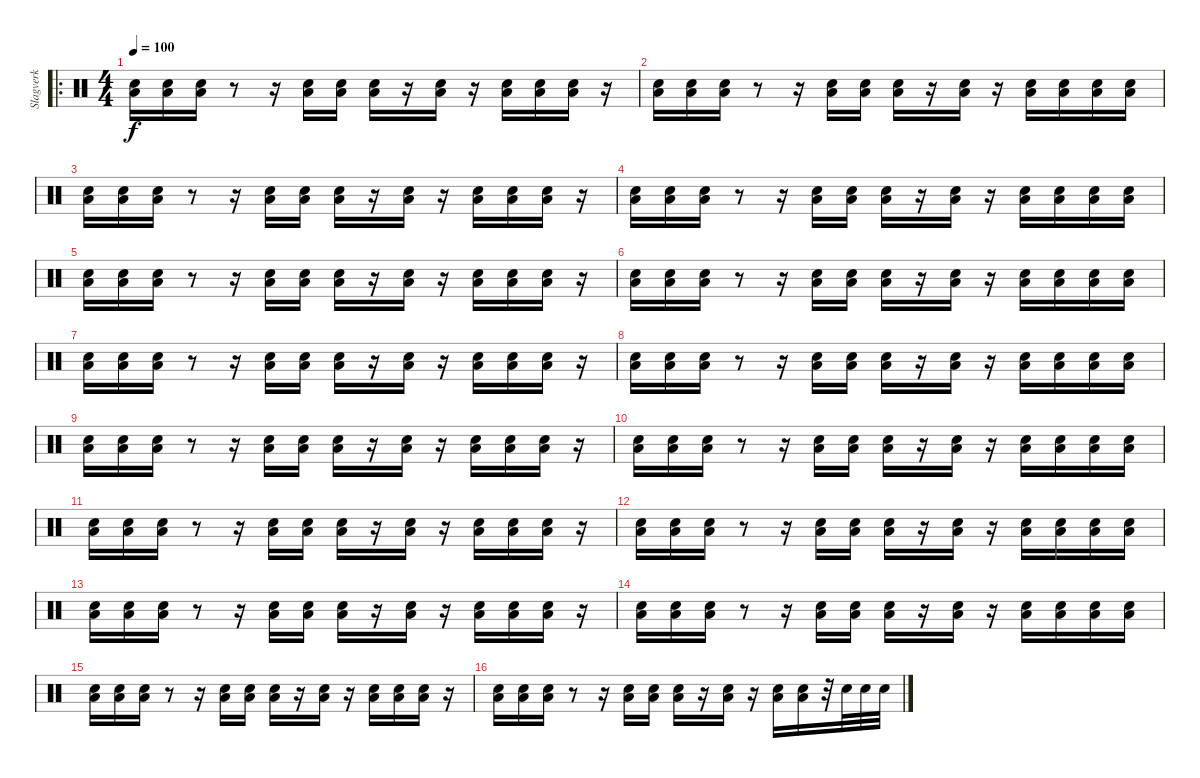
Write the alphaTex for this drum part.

\track ("Slagverk" "Slagverk") {instrument percussion}
\staff {score}
\articulation defaults
\ro
\ts (4 4)
\tempo 100
\clef neutral
\ks c
("Low Floor Tom (hit)" "Snare (hit) 2").16{dy f} ("Low Floor Tom (hit)" "Snare (hit) 2").16 ("Low Floor Tom (hit)" "Snare (hit) 2").16 r.8 r.16 ("Low Floor Tom (hit)" "Snare (hit) 2").16 ("Low Floor Tom (hit)" "Snare (hit) 2").16 ("Low Floor Tom (hit)" "Snare (hit) 2").16 r.16 ("Low Floor Tom (hit)" "Snare (hit) 2").16 r.16 ("Low Tom (hit)" "Snare (hit) 2").16 ("Low Tom (hit)" "Snare (hit) 2").16 ("Low Tom (hit)" "Snare (hit) 2").16 r.16 |
("Low Floor Tom (hit)" "Snare (hit) 2").16 ("Low Floor Tom (hit)" "Snare (hit) 2").16 ("Low Floor Tom (hit)" "Snare (hit) 2").16 r.8 r.16 ("Low Floor Tom (hit)" "Snare (hit) 2").16 ("Low Floor Tom (hit)" "Snare (hit) 2").16 ("Low Floor Tom (hit)" "Snare (hit) 2").16 r.16 ("Low Floor Tom (hit)" "Snare (hit) 2").16 r.16 ("Low Tom (hit)" "Snare (hit) 2").16 ("Low Tom (hit)" "Snare (hit) 2").16 ("Low Tom (hit)" "Snare (hit) 2").16 ("Low Tom (hit)" "Snare (hit) 2").16 |
("Low Floor Tom (hit)" "Snare (hit) 2").16 ("Low Floor Tom (hit)" "Snare (hit) 2").16 ("Low Floor Tom (hit)" "Snare (hit) 2").16 r.8 r.16 ("Low Floor Tom (hit)" "Snare (hit) 2").16 ("Low Floor Tom (hit)" "Snare (hit) 2").16 ("Low Floor Tom (hit)" "Snare (hit) 2").16 r.16 ("Low Floor Tom (hit)" "Snare (hit) 2").16 r.16 ("Low Tom (hit)" "Snare (hit) 2").16 ("Low Tom (hit)" "Snare (hit) 2").16 ("Low Tom (hit)" "Snare (hit) 2").16 r.16 |
("Low Floor Tom (hit)" "Snare (hit) 2").16 ("Low Floor Tom (hit)" "Snare (hit) 2").16 ("Low Floor Tom (hit)" "Snare (hit) 2").16 r.8 r.16 ("Low Floor Tom (hit)" "Snare (hit) 2").16 ("Low Floor Tom (hit)" "Snare (hit) 2").16 ("Low Floor Tom (hit)" "Snare (hit) 2").16 r.16 ("Low Floor Tom (hit)" "Snare (hit) 2").16 r.16 ("Low Tom (hit)" "Snare (hit) 2").16 ("Low Tom (hit)" "Snare (hit) 2").16 ("Low Tom (hit)" "Snare (hit) 2").16 ("Low Tom (hit)" "Snare (hit) 2").16 |
("Low Floor Tom (hit)" "Snare (hit) 2").16 ("Low Floor Tom (hit)" "Snare (hit) 2").16 ("Low Floor Tom (hit)" "Snare (hit) 2").16 r.8 r.16 ("Low Floor Tom (hit)" "Snare (hit) 2").16 ("Low Floor Tom (hit)" "Snare (hit) 2").16 ("Low Floor Tom (hit)" "Snare (hit) 2").16 r.16 ("Low Floor Tom (hit)" "Snare (hit) 2").16 r.16 ("Low Tom (hit)" "Snare (hit) 2").16 ("Low Tom (hit)" "Snare (hit) 2").16 ("Low Tom (hit)" "Snare (hit) 2").16 r.16 |
("Low Floor Tom (hit)" "Snare (hit) 2").16 ("Low Floor Tom (hit)" "Snare (hit) 2").16 ("Low Floor Tom (hit)" "Snare (hit) 2").16 r.8 r.16 ("Low Floor Tom (hit)" "Snare (hit) 2").16 ("Low Floor Tom (hit)" "Snare (hit) 2").16 ("Low Floor Tom (hit)" "Snare (hit) 2").16 r.16 ("Low Floor Tom (hit)" "Snare (hit) 2").16 r.16 ("Low Tom (hit)" "Snare (hit) 2").16 ("Low Tom (hit)" "Snare (hit) 2").16 ("Low Tom (hit)" "Snare (hit) 2").16 ("Low Tom (hit)" "Snare (hit) 2").16 |
("Low Floor Tom (hit)" "Snare (hit) 2").16 ("Low Floor Tom (hit)" "Snare (hit) 2").16 ("Low Floor Tom (hit)" "Snare (hit) 2").16 r.8 r.16 ("Low Floor Tom (hit)" "Snare (hit) 2").16 ("Low Floor Tom (hit)" "Snare (hit) 2").16 ("Low Floor Tom (hit)" "Snare (hit) 2").16 r.16 ("Low Floor Tom (hit)" "Snare (hit) 2").16 r.16 ("Low Tom (hit)" "Snare (hit) 2").16 ("Low Tom (hit)" "Snare (hit) 2").16 ("Low Tom (hit)" "Snare (hit) 2").16 r.16 |
("Low Floor Tom (hit)" "Snare (hit) 2").16 ("Low Floor Tom (hit)" "Snare (hit) 2").16 ("Low Floor Tom (hit)" "Snare (hit) 2").16 r.8 r.16 ("Low Floor Tom (hit)" "Snare (hit) 2").16 ("Low Floor Tom (hit)" "Snare (hit) 2").16 ("Low Floor Tom (hit)" "Snare (hit) 2").16 r.16 ("Low Floor Tom (hit)" "Snare (hit) 2").16 r.16 ("Low Tom (hit)" "Snare (hit) 2").16 ("Low Tom (hit)" "Snare (hit) 2").16 ("Low Tom (hit)" "Snare (hit) 2").16 ("Low Tom (hit)" "Snare (hit) 2").16 |
("Low Floor Tom (hit)" "Snare (hit) 2").16 ("Low Floor Tom (hit)" "Snare (hit) 2").16 ("Low Floor Tom (hit)" "Snare (hit) 2").16 r.8 r.16 ("Low Floor Tom (hit)" "Snare (hit) 2").16 ("Low Floor Tom (hit)" "Snare (hit) 2").16 ("Low Floor Tom (hit)" "Snare (hit) 2").16 r.16 ("Low Floor Tom (hit)" "Snare (hit) 2").16 r.16 ("Low Tom (hit)" "Snare (hit) 2").16 ("Low Tom (hit)" "Snare (hit) 2").16 ("Low Tom (hit)" "Snare (hit) 2").16 r.16 |
("Low Floor Tom (hit)" "Snare (hit) 2").16 ("Low Floor Tom (hit)" "Snare (hit) 2").16 ("Low Floor Tom (hit)" "Snare (hit) 2").16 r.8 r.16 ("Low Floor Tom (hit)" "Snare (hit) 2").16 ("Low Floor Tom (hit)" "Snare (hit) 2").16 ("Low Floor Tom (hit)" "Snare (hit) 2").16 r.16 ("Low Floor Tom (hit)" "Snare (hit) 2").16 r.16 ("Low Tom (hit)" "Snare (hit) 2").16 ("Low Tom (hit)" "Snare (hit) 2").16 ("Low Tom (hit)" "Snare (hit) 2").16 ("Low Tom (hit)" "Snare (hit) 2").16 |
("Low Floor Tom (hit)" "Snare (hit) 2").16 ("Low Floor Tom (hit)" "Snare (hit) 2").16 ("Low Floor Tom (hit)" "Snare (hit) 2").16 r.8 r.16 ("Low Floor Tom (hit)" "Snare (hit) 2").16 ("Low Floor Tom (hit)" "Snare (hit) 2").16 ("Low Floor Tom (hit)" "Snare (hit) 2").16 r.16 ("Low Floor Tom (hit)" "Snare (hit) 2").16 r.16 ("Low Tom (hit)" "Snare (hit) 2").16 ("Low Tom (hit)" "Snare (hit) 2").16 ("Low Tom (hit)" "Snare (hit) 2").16 r.16 |
("Low Floor Tom (hit)" "Snare (hit) 2").16 ("Low Floor Tom (hit)" "Snare (hit) 2").16 ("Low Floor Tom (hit)" "Snare (hit) 2").16 r.8 r.16 ("Low Floor Tom (hit)" "Snare (hit) 2").16 ("Low Floor Tom (hit)" "Snare (hit) 2").16 ("Low Floor Tom (hit)" "Snare (hit) 2").16 r.16 ("Low Floor Tom (hit)" "Snare (hit) 2").16 r.16 ("Low Tom (hit)" "Snare (hit) 2").16 ("Low Tom (hit)" "Snare (hit) 2").16 ("Low Tom (hit)" "Snare (hit) 2").16 ("Low Tom (hit)" "Snare (hit) 2").16 |
("Low Floor Tom (hit)" "Snare (hit) 2").16 ("Low Floor Tom (hit)" "Snare (hit) 2").16 ("Low Floor Tom (hit)" "Snare (hit) 2").16 r.8 r.16 ("Low Floor Tom (hit)" "Snare (hit) 2").16 ("Low Floor Tom (hit)" "Snare (hit) 2").16 ("Low Floor Tom (hit)" "Snare (hit) 2").16 r.16 ("Low Floor Tom (hit)" "Snare (hit) 2").16 r.16 ("Low Tom (hit)" "Snare (hit) 2").16 ("Low Tom (hit)" "Snare (hit) 2").16 ("Low Tom (hit)" "Snare (hit) 2").16 r.16 |
("Low Floor Tom (hit)" "Snare (hit) 2").16 ("Low Floor Tom (hit)" "Snare (hit) 2").16 ("Low Floor Tom (hit)" "Snare (hit) 2").16 r.8 r.16 ("Low Floor Tom (hit)" "Snare (hit) 2").16 ("Low Floor Tom (hit)" "Snare (hit) 2").16 ("Low Floor Tom (hit)" "Snare (hit) 2").16 r.16 ("Low Floor Tom (hit)" "Snare (hit) 2").16 r.16 ("Low Tom (hit)" "Snare (hit) 2").16 ("Low Tom (hit)" "Snare (hit) 2").16 ("Low Tom (hit)" "Snare (hit) 2").16 ("Low Tom (hit)" "Snare (hit) 2").16 |
("Low Floor Tom (hit)" "Snare (hit) 2").16 ("Low Floor Tom (hit)" "Snare (hit) 2").16 ("Low Floor Tom (hit)" "Snare (hit) 2").16 r.8 r.16 ("Low Floor Tom (hit)" "Snare (hit) 2").16 ("Low Floor Tom (hit)" "Snare (hit) 2").16 ("Low Floor Tom (hit)" "Snare (hit) 2").16 r.16 ("Low Floor Tom (hit)" "Snare (hit) 2").16 r.16 ("Low Tom (hit)" "Snare (hit) 2").16 ("Low Tom (hit)" "Snare (hit) 2").16 ("Low Tom (hit)" "Snare (hit) 2").16 r.16 |
("Low Floor Tom (hit)" "Snare (hit) 2").16 ("Low Floor Tom (hit)" "Snare (hit) 2").16 ("Low Floor Tom (hit)" "Snare (hit) 2").16 r.8 r.16 ("Low Floor Tom (hit)" "Snare (hit) 2").16 ("Low Floor Tom (hit)" "Snare (hit) 2").16 ("Low Floor Tom (hit)" "Snare (hit) 2").16 r.16 ("Low Floor Tom (hit)" "Snare (hit) 2").16 r.16 ("Low Tom (hit)" "Snare (hit) 2").16 ("Low Tom (hit)" "Snare (hit) 2").16 r.32 "Snare (hit) 2".32 "Snare (hit) 2".32 "Snare (hit) 2".32
